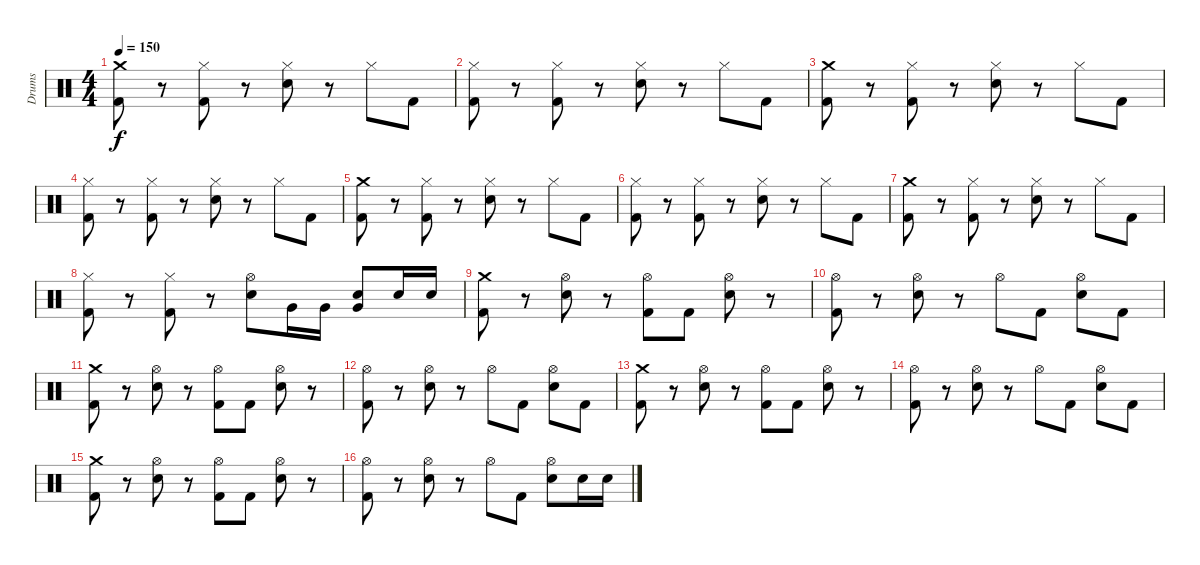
\track ("Drums" "Drums") {instrument percussion}
\staff {score}
\articulation defaults
\ts (4 4)
\tempo 150
\clef neutral
\ks c
("Crash medium (hit)" "Kick (hit) 2").8{dy f} r.8 ("Hi-Hat (closed)" "Kick (hit) 2").8 r.8 ("Hi-Hat (closed)" "Electric Snare (hit)").8 r.8 "Hi-Hat (closed)".8 "Kick (hit) 2".8 |
("Hi-Hat (closed)" "Kick (hit) 2").8 r.8 ("Hi-Hat (closed)" "Kick (hit) 2").8 r.8 ("Hi-Hat (closed)" "Electric Snare (hit)").8 r.8 "Hi-Hat (closed)".8 "Kick (hit) 2".8 |
("Crash medium (hit)" "Kick (hit) 2").8 r.8 ("Hi-Hat (closed)" "Kick (hit) 2").8 r.8 ("Hi-Hat (closed)" "Electric Snare (hit)").8 r.8 "Hi-Hat (closed)".8 "Kick (hit) 2".8 |
("Hi-Hat (closed)" "Kick (hit) 2").8 r.8 ("Hi-Hat (closed)" "Kick (hit) 2").8 r.8 ("Hi-Hat (closed)" "Electric Snare (hit)").8 r.8 "Hi-Hat (closed)".8 "Kick (hit) 2".8 |
("Crash medium (hit)" "Kick (hit) 2").8 r.8 ("Hi-Hat (closed)" "Kick (hit) 2").8 r.8 ("Hi-Hat (closed)" "Electric Snare (hit)").8 r.8 "Hi-Hat (closed)".8 "Kick (hit) 2".8 |
("Hi-Hat (closed)" "Kick (hit) 2").8 r.8 ("Hi-Hat (closed)" "Kick (hit) 2").8 r.8 ("Hi-Hat (closed)" "Electric Snare (hit)").8 r.8 "Hi-Hat (closed)".8 "Kick (hit) 2".8 |
("Crash medium (hit)" "Kick (hit) 2").8 r.8 ("Hi-Hat (closed)" "Kick (hit) 2").8 r.8 ("Hi-Hat (closed)" "Electric Snare (hit)").8 r.8 "Hi-Hat (closed)".8 "Kick (hit) 2".8 |
("Hi-Hat (closed)" "Kick (hit) 2").8 r.8 ("Hi-Hat (closed)" "Kick (hit) 2").8 r.8 ("Hi-Hat (open)" "Electric Snare (hit)").8 "Very Low Tom (hit)".16 "Very Low Tom (hit)".16 ("Very Low Tom (hit)" "Electric Snare (hit)").8 "Electric Snare (hit)".16 "Electric Snare (hit)".16 |
("Crash medium (hit)" "Kick (hit) 2").8 r.8 ("Hi-Hat (open)" "Electric Snare (hit)").8 r.8 ("Hi-Hat (open)" "Kick (hit) 2").8 "Kick (hit) 2".8 ("Hi-Hat (open)" "Electric Snare (hit)").8 r.8 |
("Hi-Hat (open)" "Kick (hit) 2").8 r.8 ("Hi-Hat (open)" "Electric Snare (hit)").8 r.8 "Hi-Hat (open)".8 "Kick (hit) 2".8 ("Hi-Hat (open)" "Electric Snare (hit)").8 "Kick (hit) 2".8 |
("Crash medium (hit)" "Kick (hit) 2").8 r.8 ("Hi-Hat (open)" "Electric Snare (hit)").8 r.8 ("Hi-Hat (open)" "Kick (hit) 2").8 "Kick (hit) 2".8 ("Hi-Hat (open)" "Electric Snare (hit)").8 r.8 |
("Hi-Hat (open)" "Kick (hit) 2").8 r.8 ("Hi-Hat (open)" "Electric Snare (hit)").8 r.8 "Hi-Hat (open)".8 "Kick (hit) 2".8 ("Hi-Hat (open)" "Electric Snare (hit)").8 "Kick (hit) 2".8 |
("Crash medium (hit)" "Kick (hit) 2").8 r.8 ("Hi-Hat (open)" "Electric Snare (hit)").8 r.8 ("Hi-Hat (open)" "Kick (hit) 2").8 "Kick (hit) 2".8 ("Hi-Hat (open)" "Electric Snare (hit)").8 r.8 |
("Hi-Hat (open)" "Kick (hit) 2").8 r.8 ("Hi-Hat (open)" "Electric Snare (hit)").8 r.8 "Hi-Hat (open)".8 "Kick (hit) 2".8 ("Hi-Hat (open)" "Electric Snare (hit)").8 "Kick (hit) 2".8 |
("Crash medium (hit)" "Kick (hit) 2").8 r.8 ("Hi-Hat (open)" "Electric Snare (hit)").8 r.8 ("Hi-Hat (open)" "Kick (hit) 2").8 "Kick (hit) 2".8 ("Hi-Hat (open)" "Electric Snare (hit)").8 r.8 |
("Hi-Hat (open)" "Kick (hit) 2").8 r.8 ("Hi-Hat (open)" "Electric Snare (hit)").8 r.8 "Hi-Hat (open)".8 "Kick (hit) 2".8 ("Hi-Hat (open)" "Electric Snare (hit)").8 "Electric Snare (hit)".16 "Electric Snare (hit)".16
